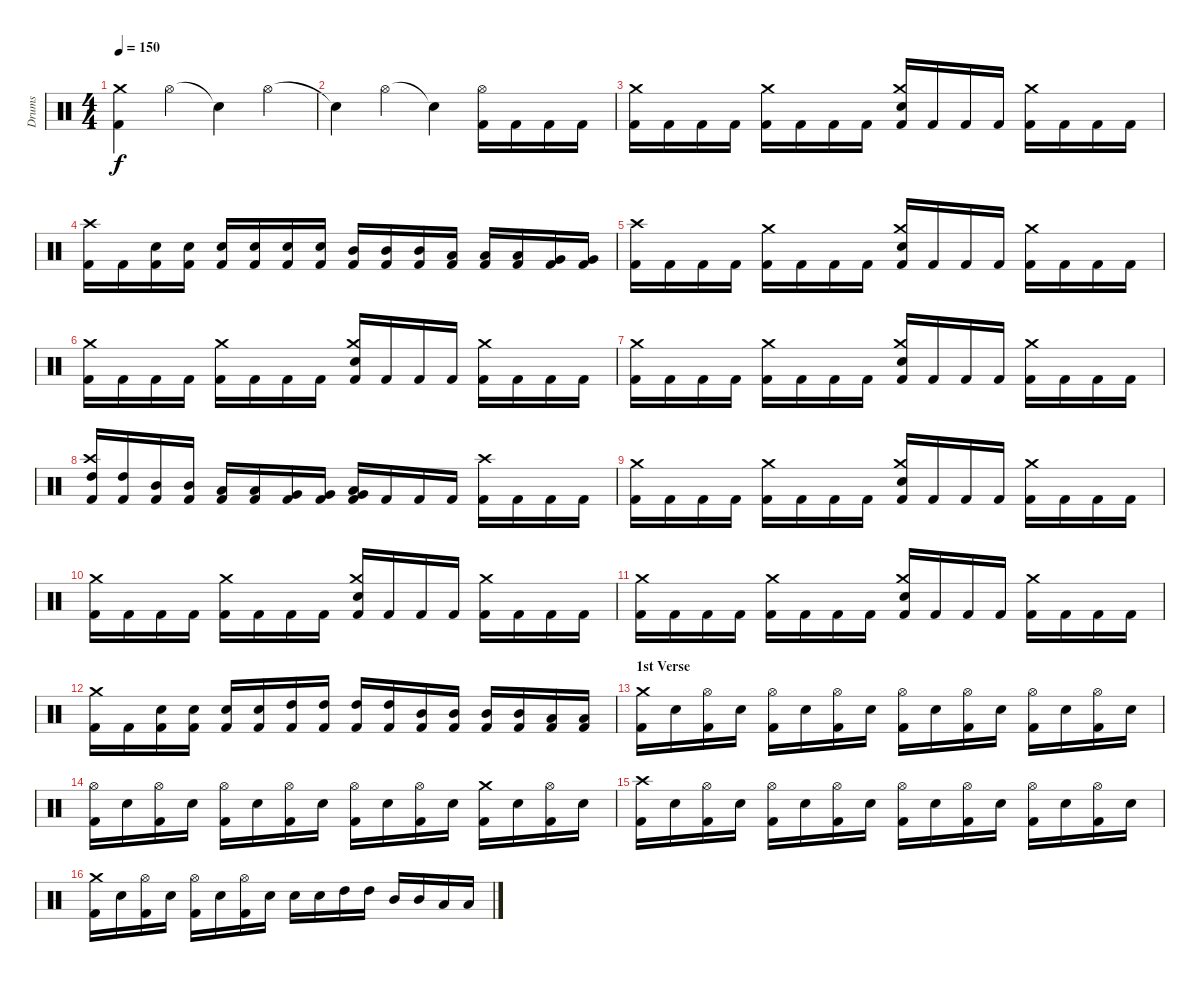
\track ("Drums" "Drums") {instrument percussion}
\staff {score}
\articulation defaults
\ts (4 4)
\tempo 150
\clef neutral
\ks c
("Kick (hit) 2" "Crash medium (hit)").4{dy f} "Hi-Hat (open)".4 "Snare (hit)"{t}.4 "Hi-Hat (open)".4 |
"Snare (hit)"{t}.4 "Hi-Hat (open)".4 "Snare (hit)"{t}.4 ("Kick (hit) 2" "Hi-Hat (open)").16 "Kick (hit) 2".16 "Kick (hit) 2".16 "Kick (hit) 2".16 |
("Kick (hit) 2" "Crash medium (hit)").16 "Kick (hit) 2".16 "Kick (hit) 2".16 "Kick (hit) 2".16 ("Kick (hit) 2" "Crash medium (hit)").16 "Kick (hit) 2".16 "Kick (hit) 2".16 "Kick (hit) 2".16 ("Kick (hit) 2" "Electric Snare (hit)" "Crash medium (hit)").16 "Kick (hit) 2".16 "Kick (hit) 2".16 "Kick (hit) 2".16 ("Kick (hit) 2" "Crash medium (hit)").16 "Kick (hit) 2".16 "Kick (hit) 2".16 "Kick (hit) 2".16 |
("Kick (hit) 2" "Crash high (hit)").16 "Kick (hit) 2".16 ("Kick (hit) 2" "Electric Snare (hit)").16 ("Kick (hit) 2" "Electric Snare (hit)").16 ("Kick (hit) 2" "Electric Snare (hit)").16 ("Kick (hit) 2" "Electric Snare (hit)").16 ("Kick (hit) 2" "Electric Snare (hit)").16 ("Kick (hit) 2" "Electric Snare (hit)").16 ("Kick (hit) 2" "Mid Tom (hit)").16 ("Kick (hit) 2" "Mid Tom (hit)").16 ("Kick (hit) 2" "Mid Tom (hit)").16 ("Kick (hit) 2" "Low Tom (hit)").16 ("Kick (hit) 2" "Low Tom (hit)").16 ("Kick (hit) 2" "Low Tom (hit)").16 ("Kick (hit) 2" "Very Low Tom (hit)").16 ("Kick (hit) 2" "Very Low Tom (hit)").16 |
("Kick (hit) 2" "Crash high (hit)").16 "Kick (hit) 2".16 "Kick (hit) 2".16 "Kick (hit) 2".16 ("Kick (hit) 2" "Crash medium (hit)").16 "Kick (hit) 2".16 "Kick (hit) 2".16 "Kick (hit) 2".16 ("Kick (hit) 2" "Electric Snare (hit)" "Crash medium (hit)").16 "Kick (hit) 2".16 "Kick (hit) 2".16 "Kick (hit) 2".16 ("Kick (hit) 2" "Crash medium (hit)").16 "Kick (hit) 2".16 "Kick (hit) 2".16 "Kick (hit) 2".16 |
("Kick (hit) 2" "Crash medium (hit)").16 "Kick (hit) 2".16 "Kick (hit) 2".16 "Kick (hit) 2".16 ("Kick (hit) 2" "Crash medium (hit)").16 "Kick (hit) 2".16 "Kick (hit) 2".16 "Kick (hit) 2".16 ("Kick (hit) 2" "Electric Snare (hit)" "Crash medium (hit)").16 "Kick (hit) 2".16 "Kick (hit) 2".16 "Kick (hit) 2".16 ("Kick (hit) 2" "Crash medium (hit)").16 "Kick (hit) 2".16 "Kick (hit) 2".16 "Kick (hit) 2".16 |
("Kick (hit) 2" "Crash medium (hit)").16 "Kick (hit) 2".16 "Kick (hit) 2".16 "Kick (hit) 2".16 ("Kick (hit) 2" "Crash medium (hit)").16 "Kick (hit) 2".16 "Kick (hit) 2".16 "Kick (hit) 2".16 ("Kick (hit) 2" "Electric Snare (hit)" "Crash medium (hit)").16 "Kick (hit) 2".16 "Kick (hit) 2".16 "Kick (hit) 2".16 ("Kick (hit) 2" "Crash medium (hit)").16 "Kick (hit) 2".16 "Kick (hit) 2".16 "Kick (hit) 2".16 |
("Kick (hit) 2" "High Tom (hit)" "Crash high (hit)").16 ("Kick (hit) 2" "High Tom (hit)").16 ("Kick (hit) 2" "Mid Tom (hit)").16 ("Kick (hit) 2" "Mid Tom (hit)").16 ("Kick (hit) 2" "Low Tom (hit)").16 ("Kick (hit) 2" "Low Tom (hit)").16 ("Kick (hit) 2" "Very Low Tom (hit)").16 ("Kick (hit) 2" "Very Low Tom (hit)").16 ("Kick (hit) 2" "Low Tom (hit)" "Very Low Tom (hit)").16 "Kick (hit) 2".16 "Kick (hit) 2".16 "Kick (hit) 2".16 ("Kick (hit) 2" "Crash high (hit)").16 "Kick (hit) 2".16 "Kick (hit) 2".16 "Kick (hit) 2".16 |
("Kick (hit) 2" "Crash medium (hit)").16 "Kick (hit) 2".16 "Kick (hit) 2".16 "Kick (hit) 2".16 ("Kick (hit) 2" "Crash medium (hit)").16 "Kick (hit) 2".16 "Kick (hit) 2".16 "Kick (hit) 2".16 ("Kick (hit) 2" "Electric Snare (hit)" "Crash medium (hit)").16 "Kick (hit) 2".16 "Kick (hit) 2".16 "Kick (hit) 2".16 ("Kick (hit) 2" "Crash medium (hit)").16 "Kick (hit) 2".16 "Kick (hit) 2".16 "Kick (hit) 2".16 |
("Kick (hit) 2" "Crash medium (hit)").16 "Kick (hit) 2".16 "Kick (hit) 2".16 "Kick (hit) 2".16 ("Kick (hit) 2" "Crash medium (hit)").16 "Kick (hit) 2".16 "Kick (hit) 2".16 "Kick (hit) 2".16 ("Kick (hit) 2" "Electric Snare (hit)" "Crash medium (hit)").16 "Kick (hit) 2".16 "Kick (hit) 2".16 "Kick (hit) 2".16 ("Kick (hit) 2" "Crash medium (hit)").16 "Kick (hit) 2".16 "Kick (hit) 2".16 "Kick (hit) 2".16 |
("Kick (hit) 2" "Crash medium (hit)").16 "Kick (hit) 2".16 "Kick (hit) 2".16 "Kick (hit) 2".16 ("Kick (hit) 2" "Crash medium (hit)").16 "Kick (hit) 2".16 "Kick (hit) 2".16 "Kick (hit) 2".16 ("Kick (hit) 2" "Electric Snare (hit)" "Crash medium (hit)").16 "Kick (hit) 2".16 "Kick (hit) 2".16 "Kick (hit) 2".16 ("Kick (hit) 2" "Crash medium (hit)").16 "Kick (hit) 2".16 "Kick (hit) 2".16 "Kick (hit) 2".16 |
("Kick (hit) 2" "Crash medium (hit)").16 "Kick (hit) 2".16 ("Kick (hit) 2" "Electric Snare (hit)").16 ("Kick (hit) 2" "Electric Snare (hit)").16 ("Kick (hit) 2" "Electric Snare (hit)").16 ("Kick (hit) 2" "Electric Snare (hit)").16 ("Kick (hit) 2" "High Tom (hit)").16 ("Kick (hit) 2" "High Tom (hit)").16 ("Kick (hit) 2" "High Tom (hit)").16 ("Kick (hit) 2" "High Tom (hit)").16 ("Kick (hit) 2" "Mid Tom (hit)").16 ("Kick (hit) 2" "Mid Tom (hit)").16 ("Kick (hit) 2" "Mid Tom (hit)").16 ("Kick (hit) 2" "Mid Tom (hit)").16 ("Kick (hit) 2" "Low Tom (hit)").16 ("Kick (hit) 2" "Low Tom (hit)").16 |
\section ("" "1st Verse")
("Kick (hit) 2" "Crash medium (hit)").16 "Electric Snare (hit)".16 ("Kick (hit) 2" "Hi-Hat (open)").16 "Electric Snare (hit)".16 ("Kick (hit) 2" "Hi-Hat (open)").16 "Electric Snare (hit)".16 ("Kick (hit) 2" "Hi-Hat (open)").16 "Electric Snare (hit)".16 ("Kick (hit) 2" "Hi-Hat (open)").16 "Electric Snare (hit)".16 ("Kick (hit) 2" "Hi-Hat (open)").16 "Electric Snare (hit)".16 ("Kick (hit) 2" "Hi-Hat (open)").16 "Electric Snare (hit)".16 ("Kick (hit) 2" "Hi-Hat (open)").16 "Electric Snare (hit)".16 |
("Kick (hit) 2" "Hi-Hat (open)").16 "Electric Snare (hit)".16 ("Kick (hit) 2" "Hi-Hat (open)").16 "Electric Snare (hit)".16 ("Kick (hit) 2" "Hi-Hat (open)").16 "Electric Snare (hit)".16 ("Kick (hit) 2" "Hi-Hat (open)").16 "Electric Snare (hit)".16 ("Kick (hit) 2" "Hi-Hat (open)").16 "Electric Snare (hit)".16 ("Kick (hit) 2" "Hi-Hat (open)").16 "Electric Snare (hit)".16 ("Kick (hit) 2" "Crash medium (hit)").16 "Electric Snare (hit)".16 ("Kick (hit) 2" "Hi-Hat (open)").16 "Electric Snare (hit)".16 |
("Kick (hit) 2" "Crash high (hit)").16 "Electric Snare (hit)".16 ("Kick (hit) 2" "Hi-Hat (open)").16 "Electric Snare (hit)".16 ("Kick (hit) 2" "Hi-Hat (open)").16 "Electric Snare (hit)".16 ("Kick (hit) 2" "Hi-Hat (open)").16 "Electric Snare (hit)".16 ("Kick (hit) 2" "Hi-Hat (open)").16 "Electric Snare (hit)".16 ("Kick (hit) 2" "Hi-Hat (open)").16 "Electric Snare (hit)".16 ("Kick (hit) 2" "Hi-Hat (open)").16 "Electric Snare (hit)".16 ("Kick (hit) 2" "Hi-Hat (open)").16 "Electric Snare (hit)".16 |
("Kick (hit) 2" "Crash medium (hit)").16 "Electric Snare (hit)".16 ("Kick (hit) 2" "Hi-Hat (open)").16 "Electric Snare (hit)".16 ("Kick (hit) 2" "Hi-Hat (open)").16 "Electric Snare (hit)".16 ("Kick (hit) 2" "Hi-Hat (open)").16 "Electric Snare (hit)".16 "Electric Snare (hit)".16 "Electric Snare (hit)".16 "High Tom (hit)".16 "High Tom (hit)".16 "Mid Tom (hit)".16 "Mid Tom (hit)".16 "Low Tom (hit)".16 "Low Tom (hit)".16
